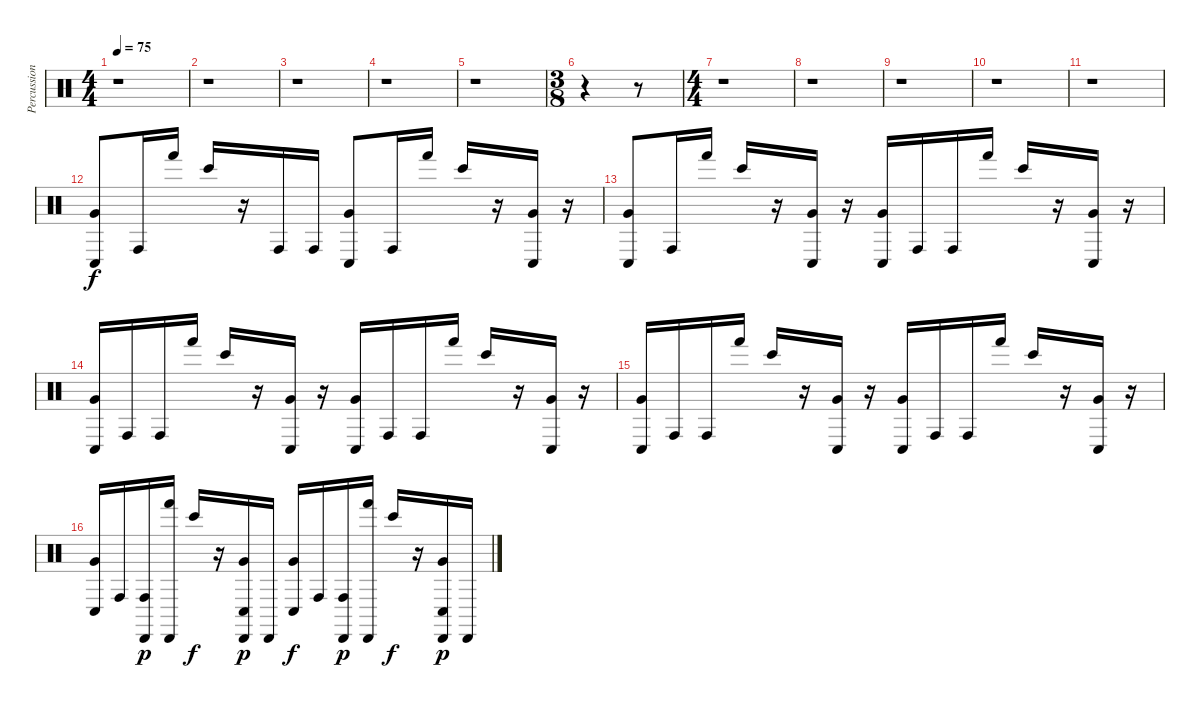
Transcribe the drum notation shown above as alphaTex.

\track ("Percussions" "Percussion") {instrument percussion}
\staff {score}
\articulation defaults
\ts (4 4)
\tempo 75
\clef neutral
\ks c
r.1{dy f} |
r.1 |
r.1 |
r.1 |
r.1 |
\ts (3 8)
r.4 r.8 |
\ts (4 4)
r.1 |
r.1 |
r.1 |
r.1 |
r.1 |
("Conga low (hit)" "Very Low Tom (hit)").8 "Conga high (hit)".16 "Hand (hit)".16 "Bongo High (hit)".16 r.16 "Conga high (hit)".16 "Conga high (hit)".16 ("Conga low (hit)" "Very Low Tom (hit)").8 "Conga high (hit)".16 "Hand (hit)".16 "Bongo High (hit)".16 r.16 ("Conga low (hit)" "Very Low Tom (hit)").16 r.16 |
("Conga low (hit)" "Very Low Tom (hit)").8 "Conga high (hit)".16 "Hand (hit)".16 "Bongo High (hit)".16 r.16 ("Conga low (hit)" "Very Low Tom (hit)").16 r.16 ("Conga low (hit)" "Very Low Tom (hit)").16 "Conga high (hit)".16 "Conga high (hit)".16 "Hand (hit)".16 "Bongo High (hit)".16 r.16 ("Conga low (hit)" "Very Low Tom (hit)").16 r.16 |
("Conga low (hit)" "Very Low Tom (hit)").16 "Conga high (hit)".16 "Conga high (hit)".16 "Hand (hit)".16 "Bongo High (hit)".16 r.16 ("Conga low (hit)" "Very Low Tom (hit)").16 r.16 ("Conga low (hit)" "Very Low Tom (hit)").16 "Conga high (hit)".16 "Conga high (hit)".16 "Hand (hit)".16 "Bongo High (hit)".16 r.16 ("Conga low (hit)" "Very Low Tom (hit)").16 r.16 |
("Conga low (hit)" "Very Low Tom (hit)").16 "Conga high (hit)".16 "Conga high (hit)".16 "Hand (hit)".16 "Bongo High (hit)".16 r.16 ("Conga low (hit)" "Very Low Tom (hit)").16 r.16 ("Conga low (hit)" "Very Low Tom (hit)").16 "Conga high (hit)".16 "Conga high (hit)".16 "Hand (hit)".16 "Bongo High (hit)".16 r.16 ("Conga low (hit)" "Very Low Tom (hit)").16 r.16 |
("Conga low (hit)" "Very Low Tom (hit)").16 "Conga high (hit)".16 ("Conga high (hit)" "Cabasa (hit)").16{dy p} ("Hand (hit)" "Cabasa (hit)").16 "Bongo High (hit)".16{dy f} r.16 ("Conga low (hit)" "Very Low Tom (hit)" "Cabasa (hit)").16{dy p} "Cabasa (hit)".16 ("Conga low (hit)" "Very Low Tom (hit)").16{dy f} "Conga high (hit)".16 ("Conga high (hit)" "Cabasa (hit)").16{dy p} ("Hand (hit)" "Cabasa (hit)").16 "Bongo High (hit)".16{dy f} r.16 ("Conga low (hit)" "Very Low Tom (hit)" "Cabasa (hit)").16{dy p} "Cabasa (hit)".16
